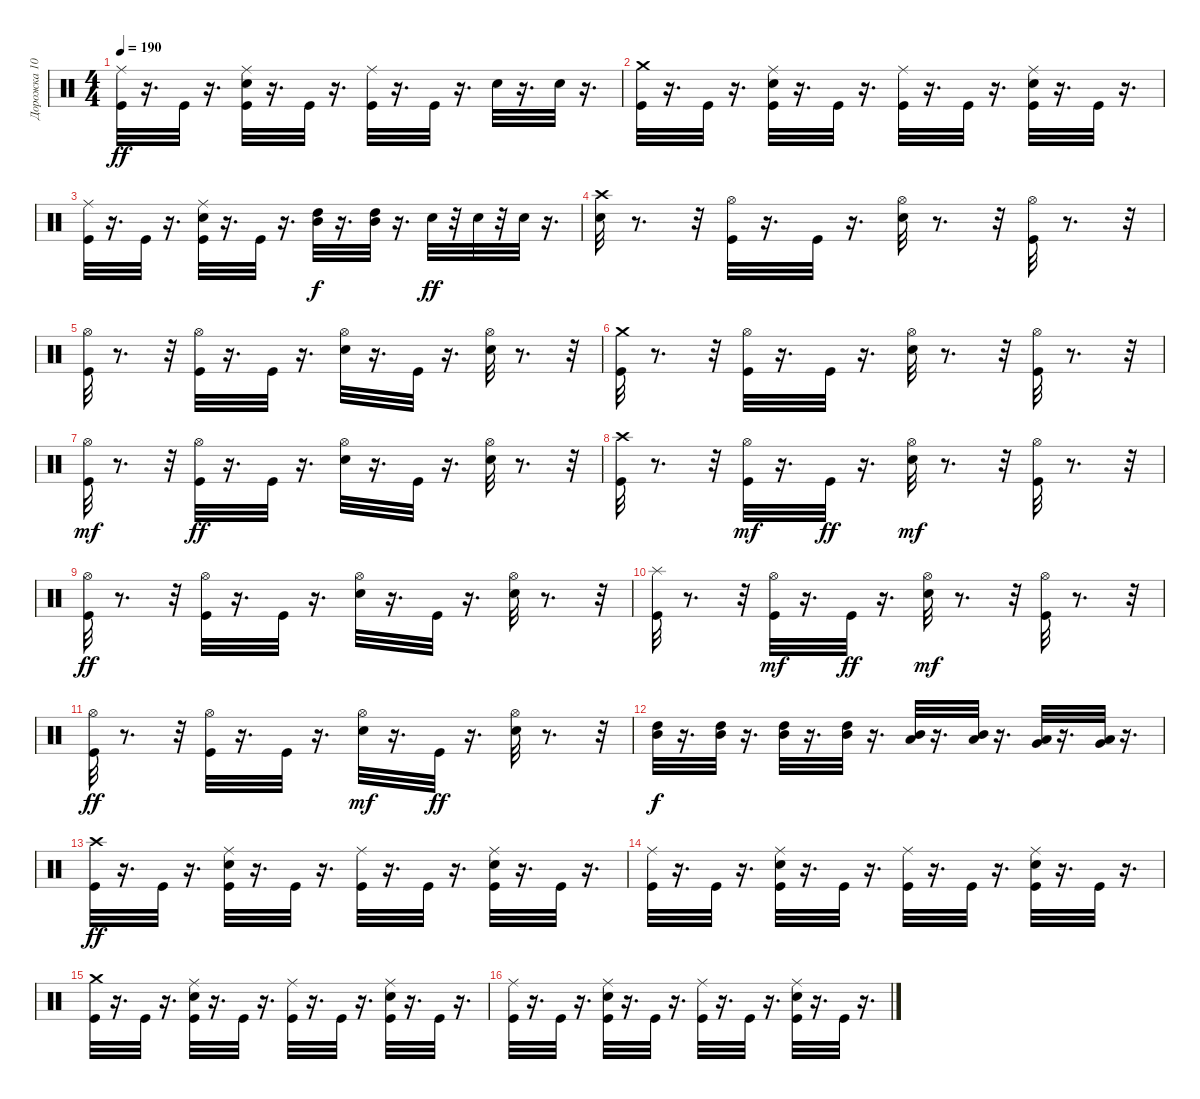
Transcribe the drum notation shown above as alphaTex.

\track ("Дорожка 10" "Дорожка 10") {instrument percussion}
\staff {score}
\articulation defaults
\ts (4 4)
\tempo 190
\clef neutral
\ks c
("Ride (middle)" "Kick (hit)").32{dy ff} r.16{d} "Kick (hit)".32 r.16{d} ("Ride (middle)" "Kick (hit)" "Snare (hit) 2").32 r.16{d} "Kick (hit)".32 r.16{d} ("Ride (middle)" "Kick (hit)").32 r.16{d} "Kick (hit)".32 r.16{d} "Snare (hit) 2".32 r.16{d} "Snare (hit) 2".32 r.16{d} |
("Crash medium (hit)" "Kick (hit)").32 r.16{d} "Kick (hit)".32 r.16{d} ("Kick (hit)" "Snare (hit) 2" "Ride (middle)").32 r.16{d} "Kick (hit)".32 r.16{d} ("Kick (hit)" "Ride (middle)").32 r.16{d} "Kick (hit)".32 r.16{d} ("Kick (hit)" "Snare (hit) 2" "Ride (middle)").32 r.16{d} "Kick (hit)".32 r.16{d} |
("Ride (middle)" "Kick (hit)").32 r.16{d} "Kick (hit)".32 r.16{d} ("Ride (middle)" "Kick (hit)" "Snare (hit) 2").32 r.16{d} "Kick (hit)".32 r.16{d} ("Mid Tom (hit)" "High Tom (hit)").32{dy f} r.16{d} ("Mid Tom (hit)" "High Tom (hit)").32 r.16{d} "Snare (hit) 2".32{dy ff} r.32 "Snare (hit) 2".32 r.32 "Snare (hit) 2".32 r.16{d} |
("Snare (hit) 2" "Crash high (hit)").32 r.8{d} r.32 ("Hi-Hat (open)" "Kick (hit)").32 r.16{d} "Kick (hit)".32 r.16{d} ("Hi-Hat (open)" "Snare (hit) 2").32 r.8{d} r.32 ("Hi-Hat (open)" "Kick (hit)").32 r.8{d} r.32 |
("Hi-Hat (open)" "Kick (hit)").32 r.8{d} r.32 ("Hi-Hat (open)" "Kick (hit)").32 r.16{d} "Kick (hit)".32 r.16{d} ("Hi-Hat (open)" "Snare (hit) 2").32 r.16{d} "Kick (hit)".32 r.16{d} ("Hi-Hat (open)" "Snare (hit) 2").32 r.8{d} r.32 |
("Kick (hit)" "Crash medium (hit)").32 r.8{d} r.32 ("Hi-Hat (open)" "Kick (hit)").32 r.16{d} "Kick (hit)".32 r.16{d} ("Hi-Hat (open)" "Snare (hit) 2").32 r.8{d} r.32 ("Hi-Hat (open)" "Kick (hit)").32 r.8{d} r.32 |
("Kick (hit)" "Hi-Hat (open)").32{dy mf} r.8{d} r.32 ("Hi-Hat (open)" "Kick (hit)").32{dy ff} r.16{d} "Kick (hit)".32 r.16{d} ("Hi-Hat (open)" "Snare (hit) 2").32 r.16{d} "Kick (hit)".32 r.16{d} ("Hi-Hat (open)" "Snare (hit) 2").32 r.8{d} r.32 |
("Crash high (hit)" "Kick (hit)").32 r.8{d} r.32 ("Kick (hit)" "Hi-Hat (open)").32{dy mf} r.16{d} "Kick (hit)".32{dy ff} r.16{d} ("Snare (hit) 2" "Hi-Hat (open)").32{dy mf} r.8{d} r.32 ("Kick (hit)" "Hi-Hat (open)").32 r.8{d} r.32 |
("Hi-Hat (open)" "Kick (hit)").32{dy ff} r.8{d} r.32 ("Hi-Hat (open)" "Kick (hit)").32 r.16{d} "Kick (hit)".32 r.16{d} ("Hi-Hat (open)" "Snare (hit) 2").32 r.16{d} "Kick (hit)".32 r.16{d} ("Hi-Hat (open)" "Snare (hit) 2").32 r.8{d} r.32 |
("Splash (hit)" "Kick (hit)").32 r.8{d} r.32 ("Kick (hit)" "Hi-Hat (open)").32{dy mf} r.16{d} "Kick (hit)".32{dy ff} r.16{d} ("Snare (hit) 2" "Hi-Hat (open)").32{dy mf} r.8{d} r.32 ("Kick (hit)" "Hi-Hat (open)").32 r.8{d} r.32 |
("Hi-Hat (open)" "Kick (hit)").32{dy ff} r.8{d} r.32 ("Hi-Hat (open)" "Kick (hit)").32 r.16{d} "Kick (hit)".32 r.16{d} ("Snare (hit) 2" "Hi-Hat (open)").32{dy mf} r.16{d} "Kick (hit)".32{dy ff} r.16{d} ("Hi-Hat (open)" "Snare (hit) 2").32 r.8{d} r.32 |
("Mid Tom (hit)" "High Tom (hit)").32{dy f} r.16{d} ("Mid Tom (hit)" "High Tom (hit)").32 r.16{d} ("Mid Tom (hit)" "High Tom (hit)").32 r.16{d} ("Mid Tom (hit)" "High Tom (hit)").32 r.16{d} ("Low Tom (hit)" "Mid Tom (hit)").32 r.16{d} ("Low Tom (hit)" "Mid Tom (hit)").32 r.16{d} ("Very Low Tom (hit)" "Low Tom (hit)").32 r.16{d} ("Very Low Tom (hit)" "Low Tom (hit)").32 r.16{d} |
("Crash high (hit)" "Kick (hit)").32{dy ff} r.16{d} "Kick (hit)".32 r.16{d} ("Kick (hit)" "Snare (hit) 2" "Ride (middle)").32 r.16{d} "Kick (hit)".32 r.16{d} ("Ride (middle)" "Kick (hit)").32 r.16{d} "Kick (hit)".32 r.16{d} ("Ride (middle)" "Kick (hit)" "Snare (hit) 2").32 r.16{d} "Kick (hit)".32 r.16{d} |
("Ride (middle)" "Kick (hit)").32 r.16{d} "Kick (hit)".32 r.16{d} ("Ride (middle)" "Kick (hit)" "Snare (hit) 2").32 r.16{d} "Kick (hit)".32 r.16{d} ("Ride (middle)" "Kick (hit)").32 r.16{d} "Kick (hit)".32 r.16{d} ("Ride (middle)" "Kick (hit)" "Snare (hit) 2").32 r.16{d} "Kick (hit)".32 r.16{d} |
("Kick (hit)" "Crash medium (hit)").32 r.16{d} "Kick (hit)".32 r.16{d} ("Snare (hit) 2" "Kick (hit)" "Ride (middle)").32 r.16{d} "Kick (hit)".32 r.16{d} ("Kick (hit)" "Ride (middle)").32 r.16{d} "Kick (hit)".32 r.16{d} ("Snare (hit) 2" "Kick (hit)" "Ride (middle)").32 r.16{d} "Kick (hit)".32 r.16{d} |
("Kick (hit)" "Ride (middle)").32 r.16{d} "Kick (hit)".32 r.16{d} ("Snare (hit) 2" "Kick (hit)" "Ride (middle)").32 r.16{d} "Kick (hit)".32 r.16{d} ("Kick (hit)" "Ride (middle)").32 r.16{d} "Kick (hit)".32 r.16{d} ("Snare (hit) 2" "Kick (hit)" "Ride (middle)").32 r.16{d} "Kick (hit)".32 r.16{d}
